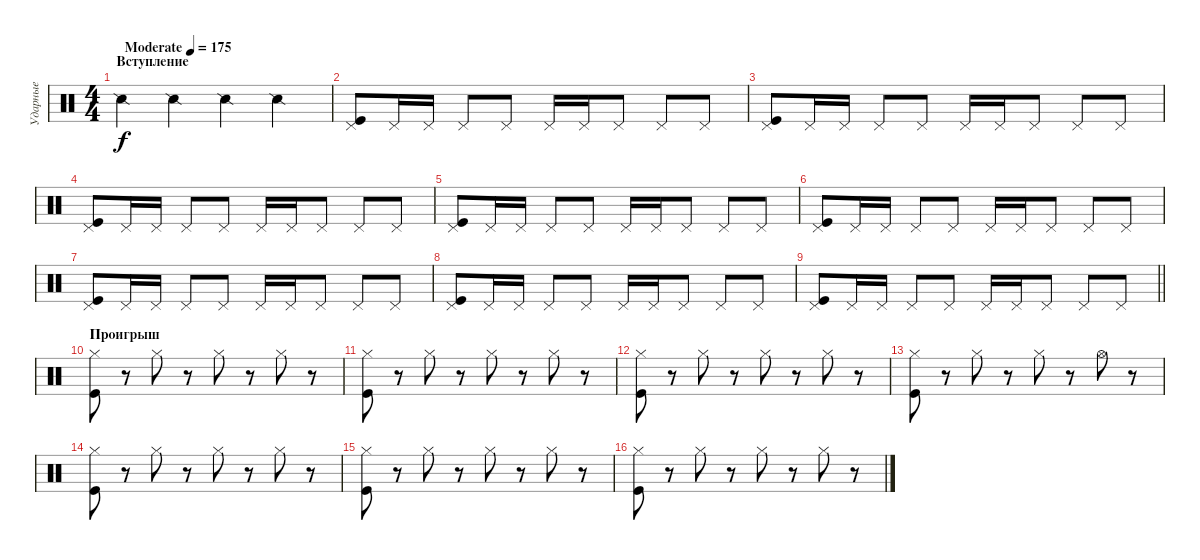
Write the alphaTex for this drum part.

\track ("Ударные" "Ударные") {instrument percussion}
\staff {score}
\articulation defaults
\ts (4 4)
\section ("" "Вступление")
\tempo (175 "Moderate")
\clef neutral
\ks c "Snare (side stick) 2".4{dy f} "Snare (side stick) 2".4 "Snare (side stick) 2".4 "Snare (side stick) 2".4
|
("Kick (hit)" "Pedal Hi-Hat (hit)").8 "Pedal Hi-Hat (hit)".16 "Pedal Hi-Hat (hit)".16 "Pedal Hi-Hat (hit)".8 "Pedal Hi-Hat (hit)".8 "Pedal Hi-Hat (hit)".16 "Pedal Hi-Hat (hit)".16 "Pedal Hi-Hat (hit)".8 "Pedal Hi-Hat (hit)".8 "Pedal Hi-Hat (hit)".8 |
("Kick (hit)" "Pedal Hi-Hat (hit)").8 "Pedal Hi-Hat (hit)".16 "Pedal Hi-Hat (hit)".16 "Pedal Hi-Hat (hit)".8 "Pedal Hi-Hat (hit)".8 "Pedal Hi-Hat (hit)".16 "Pedal Hi-Hat (hit)".16 "Pedal Hi-Hat (hit)".8 "Pedal Hi-Hat (hit)".8 "Pedal Hi-Hat (hit)".8 |
("Kick (hit)" "Pedal Hi-Hat (hit)").8 "Pedal Hi-Hat (hit)".16 "Pedal Hi-Hat (hit)".16 "Pedal Hi-Hat (hit)".8 "Pedal Hi-Hat (hit)".8 "Pedal Hi-Hat (hit)".16 "Pedal Hi-Hat (hit)".16 "Pedal Hi-Hat (hit)".8 "Pedal Hi-Hat (hit)".8 "Pedal Hi-Hat (hit)".8 |
("Kick (hit)" "Pedal Hi-Hat (hit)").8 "Pedal Hi-Hat (hit)".16 "Pedal Hi-Hat (hit)".16 "Pedal Hi-Hat (hit)".8 "Pedal Hi-Hat (hit)".8 "Pedal Hi-Hat (hit)".16 "Pedal Hi-Hat (hit)".16 "Pedal Hi-Hat (hit)".8 "Pedal Hi-Hat (hit)".8 "Pedal Hi-Hat (hit)".8 |
("Kick (hit)" "Pedal Hi-Hat (hit)").8 "Pedal Hi-Hat (hit)".16 "Pedal Hi-Hat (hit)".16 "Pedal Hi-Hat (hit)".8 "Pedal Hi-Hat (hit)".8 "Pedal Hi-Hat (hit)".16 "Pedal Hi-Hat (hit)".16 "Pedal Hi-Hat (hit)".8 "Pedal Hi-Hat (hit)".8 "Pedal Hi-Hat (hit)".8 |
("Kick (hit)" "Pedal Hi-Hat (hit)").8 "Pedal Hi-Hat (hit)".16 "Pedal Hi-Hat (hit)".16 "Pedal Hi-Hat (hit)".8 "Pedal Hi-Hat (hit)".8 "Pedal Hi-Hat (hit)".16 "Pedal Hi-Hat (hit)".16 "Pedal Hi-Hat (hit)".8 "Pedal Hi-Hat (hit)".8 "Pedal Hi-Hat (hit)".8 |
("Kick (hit)" "Pedal Hi-Hat (hit)").8 "Pedal Hi-Hat (hit)".16 "Pedal Hi-Hat (hit)".16 "Pedal Hi-Hat (hit)".8 "Pedal Hi-Hat (hit)".8 "Pedal Hi-Hat (hit)".16 "Pedal Hi-Hat (hit)".16 "Pedal Hi-Hat (hit)".8 "Pedal Hi-Hat (hit)".8 "Pedal Hi-Hat (hit)".8 |
\barLineRight lightlight
("Kick (hit)" "Pedal Hi-Hat (hit)").8 "Pedal Hi-Hat (hit)".16 "Pedal Hi-Hat (hit)".16 "Pedal Hi-Hat (hit)".8 "Pedal Hi-Hat (hit)".8 "Pedal Hi-Hat (hit)".16 "Pedal Hi-Hat (hit)".16 "Pedal Hi-Hat (hit)".8 "Pedal Hi-Hat (hit)".8 "Pedal Hi-Hat (hit)".8 |
\section ("" "Проигрыш")
("Hi-Hat (closed)" "Kick (hit)").8 r.8 "Hi-Hat (closed)".8 r.8 "Hi-Hat (closed)".8 r.8 "Hi-Hat (closed)".8 r.8 |
("Hi-Hat (closed)" "Kick (hit)").8 r.8 "Hi-Hat (closed)".8 r.8 "Hi-Hat (closed)".8 r.8 "Hi-Hat (closed)".8 r.8 |
("Hi-Hat (closed)" "Kick (hit)").8 r.8 "Hi-Hat (closed)".8 r.8 "Hi-Hat (closed)".8 r.8 "Hi-Hat (closed)".8 r.8 |
("Hi-Hat (closed)" "Kick (hit)").8 r.8 "Hi-Hat (closed)".8 r.8 "Hi-Hat (closed)".8 r.8 "Hi-Hat (open)".8 r.8 |
("Hi-Hat (closed)" "Kick (hit)").8 r.8 "Hi-Hat (closed)".8 r.8 "Hi-Hat (closed)".8 r.8 "Hi-Hat (closed)".8 r.8 |
("Hi-Hat (closed)" "Kick (hit)").8 r.8 "Hi-Hat (closed)".8 r.8 "Hi-Hat (closed)".8 r.8 "Hi-Hat (closed)".8 r.8 |
("Hi-Hat (closed)" "Kick (hit)").8 r.8 "Hi-Hat (closed)".8 r.8 "Hi-Hat (closed)".8 r.8 "Hi-Hat (closed)".8 r.8
